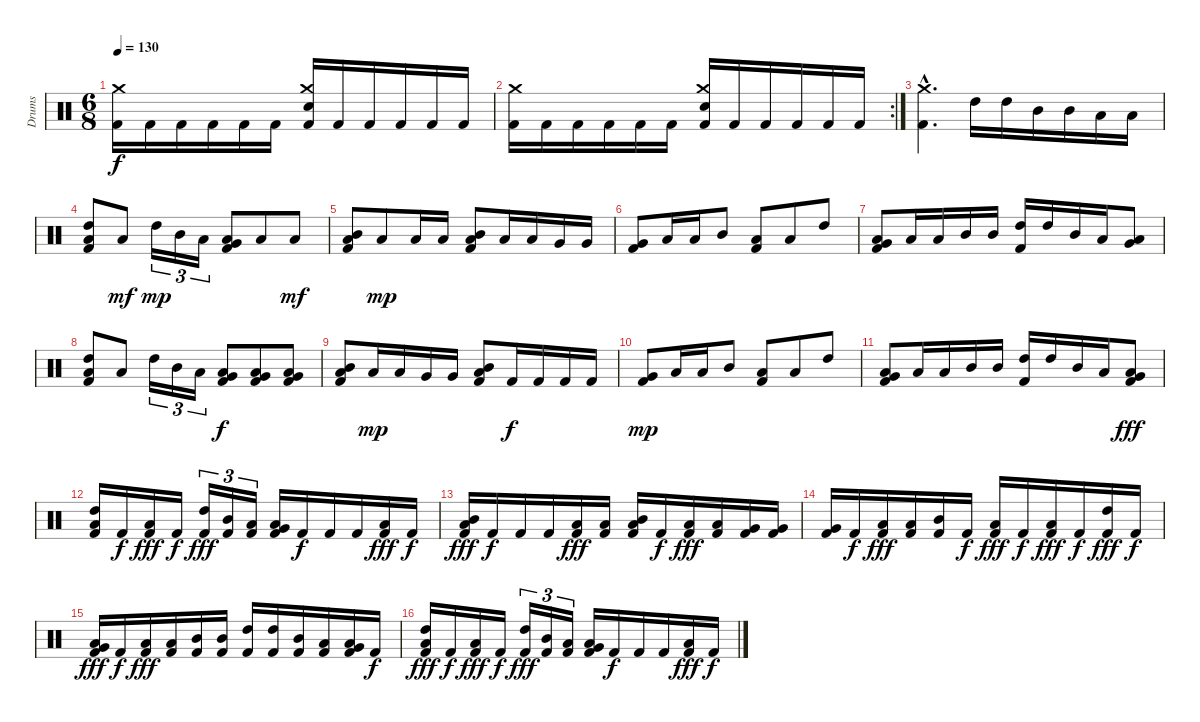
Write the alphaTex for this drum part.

\track ("Drums" "Drums") {instrument percussion}
\staff {score}
\articulation defaults
\ts (6 8)
\tempo 130
\clef neutral
\ks c
("Kick (hit) 2" "Crash medium (hit)").16{dy f} "Kick (hit) 2".16 "Kick (hit) 2".16 "Kick (hit) 2".16 "Kick (hit) 2".16 "Kick (hit) 2".16 ("Kick (hit) 2" "Electric Snare (hit)" "Crash medium (hit)").16 "Kick (hit) 2".16 "Kick (hit) 2".16 "Kick (hit) 2".16 "Kick (hit) 2".16 "Kick (hit) 2".16 |
\rc 2
("Kick (hit) 2" "Crash medium (hit)").16 "Kick (hit) 2".16 "Kick (hit) 2".16 "Kick (hit) 2".16 "Kick (hit) 2".16 "Kick (hit) 2".16 ("Kick (hit) 2" "Electric Snare (hit)" "Crash medium (hit)").16 "Kick (hit) 2".16 "Kick (hit) 2".16 "Kick (hit) 2".16 "Kick (hit) 2".16 "Kick (hit) 2".16 |
("Kick (hit) 2"{hac} "Crash medium (hit)"{hac}).4{d} "High Tom (hit)".16 "High Tom (hit)".16 "Mid Tom (hit)".16 "Mid Tom (hit)".16 "Low Tom (hit)".16 "Low Tom (hit)".16 |
("Kick (hit) 2" "Low Tom (hit)" "High Tom (hit)").8 "Low Tom (hit)".8{dy mf} "High Tom (hit)".16{tu (3 2) dy mp} "Mid Tom (hit)".16{tu (3 2)} "Low Tom (hit)".16{tu (3 2)} ("Kick (hit) 2" "Very Low Tom (hit)" "Low Tom (hit)").8 "Low Floor Tom (hit)".8 "Low Tom (hit)".8{dy mf} |
("Kick (hit) 2" "Low Floor Tom (hit)" "Mid Tom (hit)").8 "Low Floor Tom (hit)".8{dy mp} "Low Tom (hit)".16 "Low Tom (hit)".16 ("Kick (hit) 2" "Mid Tom (hit)" "Low Tom (hit)").8 "Low Tom (hit)".16 "Low Tom (hit)".16 "Very Low Tom (hit)".16 "Very Low Tom (hit)".16 |
("Kick (hit) 2" "Very Low Tom (hit)").8 "Low Tom (hit)".16 "Low Tom (hit)".16 "Mid Tom (hit)".8 ("Kick (hit) 2" "Low Tom (hit)").8 "Low Tom (hit)".8 "High Tom (hit)".8 |
("Kick (hit) 2" "Very Low Tom (hit)" "Low Tom (hit)").8 "Low Tom (hit)".16 "Low Tom (hit)".16 "Mid Tom (hit)".16 "Mid Tom (hit)".16 ("Kick (hit) 2" "High Tom (hit)").16 "High Tom (hit)".16 "Mid Tom (hit)".16 "Low Tom (hit)".16 ("Very Low Tom (hit)" "Low Tom (hit)").8 |
("Kick (hit) 2" "Low Tom (hit)" "High Tom (hit)").8 "Low Tom (hit)".8 "High Tom (hit)".16{tu (3 2)} "Mid Tom (hit)".16{tu (3 2)} "Low Tom (hit)".16{tu (3 2)} ("Kick (hit) 2" "Very Low Tom (hit)" "Low Tom (hit)").8{dy f} ("Kick (hit) 2" "Very Low Tom (hit)" "Low Tom (hit)").8 ("Kick (hit) 2" "Very Low Tom (hit)" "Low Tom (hit)").8 |
("Kick (hit) 2" "Mid Tom (hit)" "Low Tom (hit)").8 "Low Tom (hit)".16{dy mp} "Low Tom (hit)".16 "Very Low Tom (hit)".16 "Very Low Tom (hit)".16 ("Kick (hit) 2" "Mid Tom (hit)" "Low Tom (hit)").8 "Kick (hit) 2".16{dy f} "Kick (hit) 2".16 "Kick (hit) 2".16 "Kick (hit) 2".16 |
("Kick (hit) 2" "Very Low Tom (hit)").8{dy mp} "Low Tom (hit)".16 "Low Tom (hit)".16 "Mid Tom (hit)".8 ("Kick (hit) 2" "Low Tom (hit)").8 "Low Tom (hit)".8 "High Tom (hit)".8 |
("Kick (hit) 2" "Very Low Tom (hit)" "Low Tom (hit)").8 "Low Tom (hit)".16 "Low Tom (hit)".16 "Mid Tom (hit)".16 "Mid Tom (hit)".16 ("Kick (hit) 2" "High Tom (hit)").16 "High Tom (hit)".16 "Mid Tom (hit)".16 "Low Tom (hit)".16 ("Kick (hit) 2" "Very Low Tom (hit)" "Low Tom (hit)").8{dy fff} |
("Kick (hit) 2" "Low Tom (hit)" "High Tom (hit)").16 "Kick (hit) 2".16{dy f} ("Kick (hit) 2" "Low Tom (hit)").16{dy fff} "Kick (hit) 2".16{dy f} ("Kick (hit) 2" "High Tom (hit)").16{tu (3 2) dy fff} ("Kick (hit) 2" "Mid Tom (hit)").16{tu (3 2)} ("Kick (hit) 2" "Low Tom (hit)").16{tu (3 2)} ("Kick (hit) 2" "Very Low Tom (hit)" "Low Tom (hit)").16 "Kick (hit) 2".16{dy f} "Kick (hit) 2".16 "Kick (hit) 2".16 ("Kick (hit) 2" "Low Tom (hit)").16{dy fff} "Kick (hit) 2".16{dy f} |
("Kick (hit) 2" "Low Floor Tom (hit)" "Mid Tom (hit)").16{dy fff} "Kick (hit) 2".16{dy f} "Kick (hit) 2".16 "Kick (hit) 2".16 ("Kick (hit) 2" "Low Tom (hit)").16{dy fff} ("Kick (hit) 2" "Low Tom (hit)").16 ("Kick (hit) 2" "Mid Tom (hit)" "Low Tom (hit)").16 "Kick (hit) 2".16{dy f} ("Kick (hit) 2" "Low Tom (hit)").16{dy fff} ("Kick (hit) 2" "Low Tom (hit)").16 ("Kick (hit) 2" "Very Low Tom (hit)").16 ("Kick (hit) 2" "Very Low Tom (hit)").16 |
("Kick (hit) 2" "Very Low Tom (hit)").16 "Kick (hit) 2".16{dy f} ("Kick (hit) 2" "Low Tom (hit)").16{dy fff} ("Kick (hit) 2" "Low Tom (hit)").16 ("Kick (hit) 2" "Mid Tom (hit)").16 "Kick (hit) 2".16{dy f} ("Kick (hit) 2" "Low Tom (hit)").16{dy fff} "Kick (hit) 2".16{dy f} ("Kick (hit) 2" "Low Tom (hit)").16{dy fff} "Kick (hit) 2".16{dy f} ("Kick (hit) 2" "High Tom (hit)").16{dy fff} "Kick (hit) 2".16{dy f} |
("Kick (hit) 2" "Very Low Tom (hit)" "Low Tom (hit)").16{dy fff} "Kick (hit) 2".16{dy f} ("Kick (hit) 2" "Low Tom (hit)").16{dy fff} ("Kick (hit) 2" "Low Tom (hit)").16 ("Kick (hit) 2" "Mid Tom (hit)").16 ("Kick (hit) 2" "Mid Tom (hit)").16 ("Kick (hit) 2" "High Tom (hit)").16 ("Kick (hit) 2" "High Tom (hit)").16 ("Kick (hit) 2" "Mid Tom (hit)").16 ("Kick (hit) 2" "Low Tom (hit)").16 ("Kick (hit) 2" "Very Low Tom (hit)" "Low Tom (hit)").16 "Kick (hit) 2".16{dy f} |
("Kick (hit) 2" "Low Tom (hit)" "High Tom (hit)").16{dy fff} "Kick (hit) 2".16{dy f} ("Kick (hit) 2" "Low Tom (hit)").16{dy fff} "Kick (hit) 2".16{dy f} ("Kick (hit) 2" "High Tom (hit)").16{tu (3 2) dy fff} ("Kick (hit) 2" "Mid Tom (hit)").16{tu (3 2)} ("Kick (hit) 2" "Low Tom (hit)").16{tu (3 2)} ("Kick (hit) 2" "Very Low Tom (hit)" "Low Tom (hit)").16 "Kick (hit) 2".16{dy f} "Kick (hit) 2".16 "Kick (hit) 2".16 ("Kick (hit) 2" "Low Tom (hit)").16{dy fff} "Kick (hit) 2".16{dy f}
